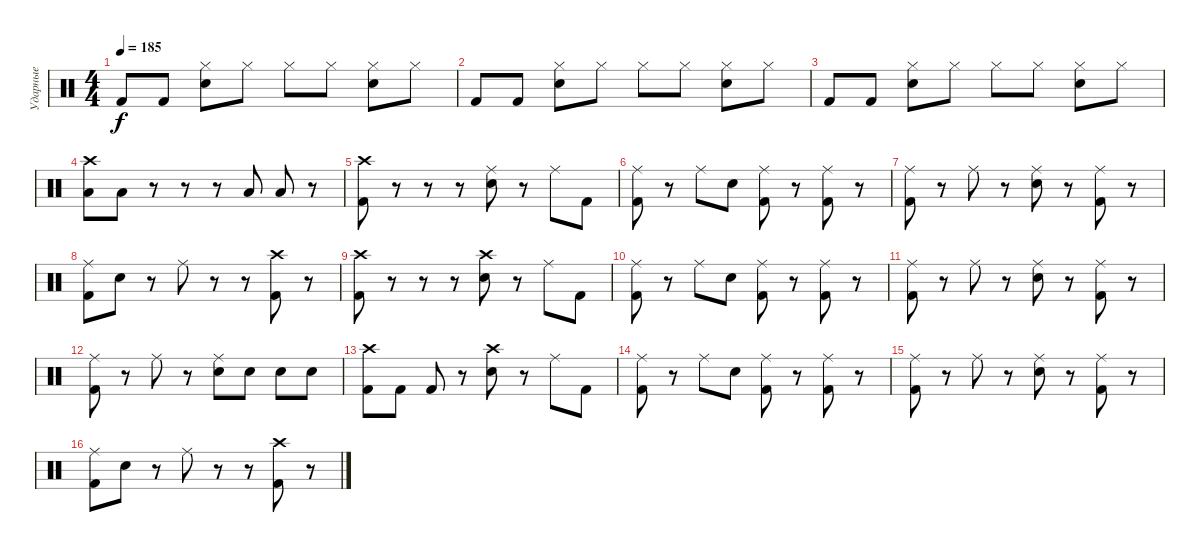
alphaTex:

\track ("Ударные" "Ударные") {instrument percussion}
\staff {score}
\articulation defaults
\ts (4 4)
\tempo 185
\clef neutral
\ks c "Kick (hit) 2".8{dy f} "Kick (hit) 2".8
("Electric Snare (hit)" "Hi-Hat (closed)").8 "Hi-Hat (closed)".8 "Hi-Hat (closed)".8 "Hi-Hat (closed)".8 ("Electric Snare (hit)" "Hi-Hat (closed)").8 "Hi-Hat (closed)".8 |
"Kick (hit) 2".8 "Kick (hit) 2".8 ("Electric Snare (hit)" "Hi-Hat (closed)").8 "Hi-Hat (closed)".8 "Hi-Hat (closed)".8 "Hi-Hat (closed)".8 ("Electric Snare (hit)" "Hi-Hat (closed)").8 "Hi-Hat (closed)".8 |
"Kick (hit) 2".8 "Kick (hit) 2".8 ("Electric Snare (hit)" "Hi-Hat (closed)").8 "Hi-Hat (closed)".8 "Hi-Hat (closed)".8 "Hi-Hat (closed)".8 ("Electric Snare (hit)" "Hi-Hat (closed)").8 "Hi-Hat (closed)".8 |
("Low Tom (hit)" "Crash high (hit)").8 "Low Tom (hit)".8 r.8 r.8 r.8 "Low Tom (hit)".8 "Low Tom (hit)".8 r.8 |
("Kick (hit) 2" "Crash high (hit)").8 r.8 r.8 r.8 ("Electric Snare (hit)" "Ride (middle)").8 r.8 "Ride (middle)".8 "Kick (hit) 2".8 |
("Kick (hit) 2" "Ride (middle)").8 r.8 "Ride (middle)".8 "Electric Snare (hit)".8 ("Kick (hit) 2" "Ride (middle)").8 r.8 ("Kick (hit) 2" "Ride (middle)").8 r.8 |
("Kick (hit) 2" "Ride (middle)").8 r.8 "Ride (middle)".8 r.8 ("Electric Snare (hit)" "Ride (middle)").8 r.8 ("Kick (hit) 2" "Ride (middle)").8 r.8 |
("Kick (hit) 2" "Ride (middle)").8 "Electric Snare (hit)".8 r.8 "Ride (middle)".8 r.8 r.8 ("Kick (hit) 2" "Crash high (hit)").8 r.8 |
("Kick (hit) 2" "Crash high (hit)").8 r.8 r.8 r.8 ("Electric Snare (hit)" "Crash high (hit)").8 r.8 "Ride (middle)".8 "Kick (hit) 2".8 |
("Kick (hit) 2" "Ride (middle)").8 r.8 "Ride (middle)".8 "Electric Snare (hit)".8 ("Kick (hit) 2" "Ride (middle)").8 r.8 ("Kick (hit) 2" "Ride (middle)").8 r.8 |
("Kick (hit) 2" "Ride (middle)").8 r.8 "Ride (middle)".8 r.8 ("Electric Snare (hit)" "Ride (middle)").8 r.8 ("Kick (hit) 2" "Ride (middle)").8 r.8 |
("Kick (hit) 2" "Ride (middle)").8 r.8 "Ride (middle)".8 r.8 ("Electric Snare (hit)" "Ride (middle)").8 "Electric Snare (hit)".8 "Electric Snare (hit)".8 "Electric Snare (hit)".8 |
("Kick (hit) 2" "Crash high (hit)").8 "Kick (hit) 2".8 "Kick (hit) 2".8 r.8 ("Electric Snare (hit)" "Crash high (hit)").8 r.8 "Ride (middle)".8 "Kick (hit) 2".8 |
("Kick (hit) 2" "Ride (middle)").8 r.8 "Ride (middle)".8 "Electric Snare (hit)".8 ("Kick (hit) 2" "Ride (middle)").8 r.8 ("Kick (hit) 2" "Ride (middle)").8 r.8 |
("Kick (hit) 2" "Ride (middle)").8 r.8 "Ride (middle)".8 r.8 ("Electric Snare (hit)" "Ride (middle)").8 r.8 ("Kick (hit) 2" "Ride (middle)").8 r.8 |
("Kick (hit) 2" "Ride (middle)").8 "Electric Snare (hit)".8 r.8 "Ride (middle)".8 r.8 r.8 ("Kick (hit) 2" "Crash high (hit)").8 r.8
